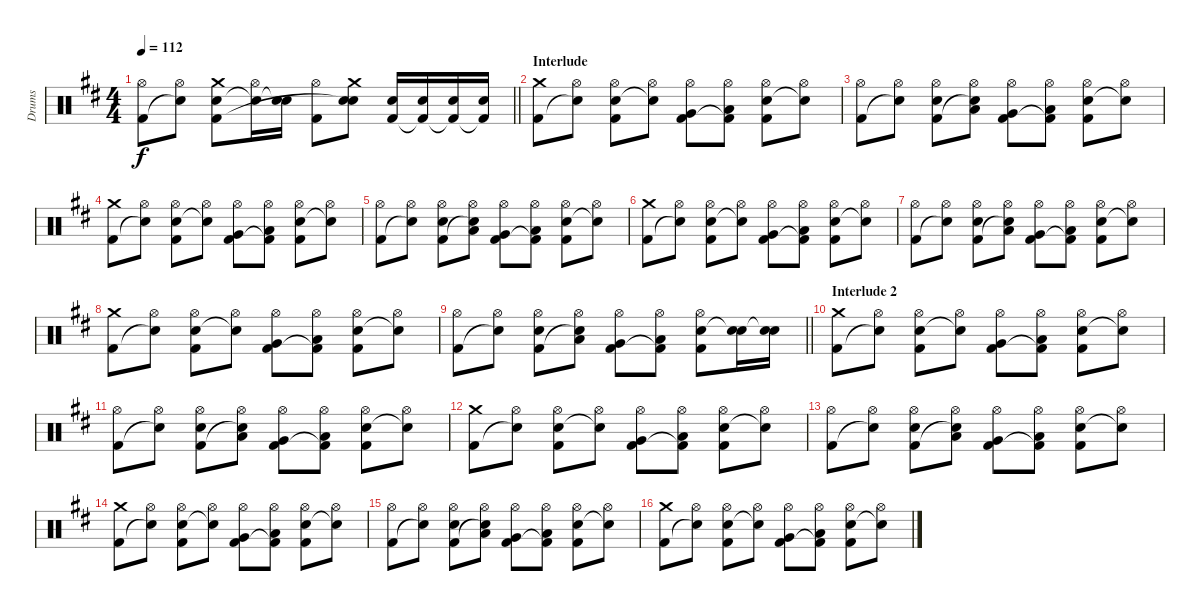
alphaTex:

\track ("Drums" "Drums") {instrument percussion}
\staff {score}
\articulation defaults
\ts (4 4)
\tempo 112
\clef neutral
\barLineRight lightlight
\ks bminor
("Hi-Hat (open)" "Kick (hit) 2").8{dy f} ("Hi-Hat (open)" "Snare (hit)"{t}).8 ("Crash medium (hit)" "Electric Snare (hit)" "Kick (hit) 2").8 ("Hi-Hat (open)" "Snare (hit)"{t}).16 ("Electric Snare (hit)" "Snare (hit)"{t}).16 ("Hi-Hat (open)" "Kick (hit) 2").8 ("Crash medium (hit)" "Electric Snare (hit)" "Snare (hit)"{t}).8 ("Electric Snare (hit)" "Kick (hit) 2").16 ("Electric Snare (hit)" "Kick (hit) 2"{t}).16 ("Electric Snare (hit)" "Kick (hit) 2"{t}).16 ("Electric Snare (hit)" "Kick (hit) 2"{t}).16 |
\section ("" "Interlude")
("Crash medium (hit)" "Kick (hit) 2").8 ("Hi-Hat (open)" "Snare (hit)"{t}).8 ("Hi-Hat (open)" "Electric Snare (hit)" "Kick (hit) 2").8 ("Hi-Hat (open)" "Snare (hit)"{t}).8 ("Hi-Hat (open)" "Very Low Tom (hit)" "Kick (hit) 2").8 ("Hi-Hat (open)" "Low Floor Tom (hit)" "Kick (hit) 2"{t}).8 ("Hi-Hat (open)" "Electric Snare (hit)" "Kick (hit) 2").8 ("Hi-Hat (open)" "Snare (hit)"{t}).8 |
("Hi-Hat (open)" "Kick (hit) 2").8 ("Hi-Hat (open)" "Snare (hit)"{t}).8 ("Hi-Hat (open)" "Electric Snare (hit)" "Kick (hit) 2").8 ("Hi-Hat (open)" "Low Tom (hit)" "Snare (hit)"{t}).8 ("Hi-Hat (open)" "Very Low Tom (hit)" "Kick (hit) 2").8 ("Hi-Hat (open)" "Low Floor Tom (hit)" "Kick (hit) 2"{t}).8 ("Hi-Hat (open)" "Electric Snare (hit)" "Kick (hit) 2").8 ("Hi-Hat (open)" "Snare (hit)"{t}).8 |
("Crash medium (hit)" "Kick (hit) 2").8 ("Hi-Hat (open)" "Snare (hit)"{t}).8 ("Hi-Hat (open)" "Electric Snare (hit)" "Kick (hit) 2").8 ("Hi-Hat (open)" "Snare (hit)"{t}).8 ("Hi-Hat (open)" "Very Low Tom (hit)" "Kick (hit) 2").8 ("Hi-Hat (open)" "Low Floor Tom (hit)" "Kick (hit) 2"{t}).8 ("Hi-Hat (open)" "Electric Snare (hit)" "Kick (hit) 2").8 ("Hi-Hat (open)" "Snare (hit)"{t}).8 |
("Hi-Hat (open)" "Kick (hit) 2").8 ("Hi-Hat (open)" "Snare (hit)"{t}).8 ("Hi-Hat (open)" "Electric Snare (hit)" "Kick (hit) 2").8 ("Hi-Hat (open)" "Low Tom (hit)" "Snare (hit)"{t}).8 ("Hi-Hat (open)" "Very Low Tom (hit)" "Kick (hit) 2").8 ("Hi-Hat (open)" "Low Floor Tom (hit)" "Kick (hit) 2"{t}).8 ("Hi-Hat (open)" "Electric Snare (hit)" "Kick (hit) 2").8 ("Hi-Hat (open)" "Snare (hit)"{t}).8 |
("Crash medium (hit)" "Kick (hit) 2").8 ("Hi-Hat (open)" "Snare (hit)"{t}).8 ("Hi-Hat (open)" "Electric Snare (hit)" "Kick (hit) 2").8 ("Hi-Hat (open)" "Snare (hit)"{t}).8 ("Hi-Hat (open)" "Very Low Tom (hit)" "Kick (hit) 2").8 ("Hi-Hat (open)" "Low Floor Tom (hit)" "Kick (hit) 2"{t}).8 ("Hi-Hat (open)" "Electric Snare (hit)" "Kick (hit) 2").8 ("Hi-Hat (open)" "Snare (hit)"{t}).8 |
("Hi-Hat (open)" "Kick (hit) 2").8 ("Hi-Hat (open)" "Snare (hit)"{t}).8 ("Hi-Hat (open)" "Electric Snare (hit)" "Kick (hit) 2").8 ("Hi-Hat (open)" "Low Tom (hit)" "Snare (hit)"{t}).8 ("Hi-Hat (open)" "Very Low Tom (hit)" "Kick (hit) 2").8 ("Hi-Hat (open)" "Low Floor Tom (hit)" "Kick (hit) 2"{t}).8 ("Hi-Hat (open)" "Electric Snare (hit)" "Kick (hit) 2").8 ("Hi-Hat (open)" "Snare (hit)"{t}).8 |
("Crash medium (hit)" "Kick (hit) 2").8 ("Hi-Hat (open)" "Snare (hit)"{t}).8 ("Hi-Hat (open)" "Electric Snare (hit)" "Kick (hit) 2").8 ("Hi-Hat (open)" "Snare (hit)"{t}).8 ("Hi-Hat (open)" "Very Low Tom (hit)" "Kick (hit) 2").8 ("Hi-Hat (open)" "Low Floor Tom (hit)" "Kick (hit) 2"{t}).8 ("Hi-Hat (open)" "Electric Snare (hit)" "Kick (hit) 2").8 ("Hi-Hat (open)" "Snare (hit)"{t}).8 |
\barLineRight lightlight
("Hi-Hat (open)" "Kick (hit) 2").8 ("Hi-Hat (open)" "Snare (hit)"{t}).8 ("Hi-Hat (open)" "Electric Snare (hit)" "Kick (hit) 2").8 ("Hi-Hat (open)" "Low Tom (hit)" "Snare (hit)"{t}).8 ("Hi-Hat (open)" "Very Low Tom (hit)" "Kick (hit) 2").8 ("Hi-Hat (open)" "Low Floor Tom (hit)" "Kick (hit) 2"{t}).8 ("Hi-Hat (open)" "Electric Snare (hit)" "Kick (hit) 2").8 ("Electric Snare (hit)" "Snare (hit)"{t}).16 ("Electric Snare (hit)" "Snare (hit)"{t}).16 |
\section ("" "Interlude 2")
("Crash medium (hit)" "Kick (hit) 2").8 ("Hi-Hat (open)" "Snare (hit)"{t}).8 ("Hi-Hat (open)" "Electric Snare (hit)" "Kick (hit) 2").8 ("Hi-Hat (open)" "Snare (hit)"{t}).8 ("Hi-Hat (open)" "Very Low Tom (hit)" "Kick (hit) 2").8 ("Hi-Hat (open)" "Low Floor Tom (hit)" "Kick (hit) 2"{t}).8 ("Hi-Hat (open)" "Electric Snare (hit)" "Kick (hit) 2").8 ("Hi-Hat (open)" "Snare (hit)"{t}).8 |
("Hi-Hat (open)" "Kick (hit) 2").8 ("Hi-Hat (open)" "Snare (hit)"{t}).8 ("Hi-Hat (open)" "Electric Snare (hit)" "Kick (hit) 2").8 ("Hi-Hat (open)" "Low Tom (hit)" "Snare (hit)"{t}).8 ("Hi-Hat (open)" "Very Low Tom (hit)" "Kick (hit) 2").8 ("Hi-Hat (open)" "Low Floor Tom (hit)" "Kick (hit) 2"{t}).8 ("Hi-Hat (open)" "Electric Snare (hit)" "Kick (hit) 2").8 ("Hi-Hat (open)" "Snare (hit)"{t}).8 |
("Crash medium (hit)" "Kick (hit) 2").8 ("Hi-Hat (open)" "Snare (hit)"{t}).8 ("Hi-Hat (open)" "Electric Snare (hit)" "Kick (hit) 2").8 ("Hi-Hat (open)" "Snare (hit)"{t}).8 ("Hi-Hat (open)" "Very Low Tom (hit)" "Kick (hit) 2").8 ("Hi-Hat (open)" "Low Floor Tom (hit)" "Kick (hit) 2"{t}).8 ("Hi-Hat (open)" "Electric Snare (hit)" "Kick (hit) 2").8 ("Hi-Hat (open)" "Snare (hit)"{t}).8 |
("Hi-Hat (open)" "Kick (hit) 2").8 ("Hi-Hat (open)" "Snare (hit)"{t}).8 ("Hi-Hat (open)" "Electric Snare (hit)" "Kick (hit) 2").8 ("Hi-Hat (open)" "Low Tom (hit)" "Snare (hit)"{t}).8 ("Hi-Hat (open)" "Very Low Tom (hit)" "Kick (hit) 2").8 ("Hi-Hat (open)" "Low Floor Tom (hit)" "Kick (hit) 2"{t}).8 ("Hi-Hat (open)" "Electric Snare (hit)" "Kick (hit) 2").8 ("Hi-Hat (open)" "Snare (hit)"{t}).8 |
("Crash medium (hit)" "Kick (hit) 2").8 ("Hi-Hat (open)" "Snare (hit)"{t}).8 ("Hi-Hat (open)" "Electric Snare (hit)" "Kick (hit) 2").8 ("Hi-Hat (open)" "Snare (hit)"{t}).8 ("Hi-Hat (open)" "Very Low Tom (hit)" "Kick (hit) 2").8 ("Hi-Hat (open)" "Low Floor Tom (hit)" "Kick (hit) 2"{t}).8 ("Hi-Hat (open)" "Electric Snare (hit)" "Kick (hit) 2").8 ("Hi-Hat (open)" "Snare (hit)"{t}).8 |
("Hi-Hat (open)" "Kick (hit) 2").8 ("Hi-Hat (open)" "Snare (hit)"{t}).8 ("Hi-Hat (open)" "Electric Snare (hit)" "Kick (hit) 2").8 ("Hi-Hat (open)" "Low Tom (hit)" "Snare (hit)"{t}).8 ("Hi-Hat (open)" "Very Low Tom (hit)" "Kick (hit) 2").8 ("Hi-Hat (open)" "Low Floor Tom (hit)" "Kick (hit) 2"{t}).8 ("Hi-Hat (open)" "Electric Snare (hit)" "Kick (hit) 2").8 ("Hi-Hat (open)" "Snare (hit)"{t}).8 |
("Crash medium (hit)" "Kick (hit) 2").8 ("Hi-Hat (open)" "Snare (hit)"{t}).8 ("Hi-Hat (open)" "Electric Snare (hit)" "Kick (hit) 2").8 ("Hi-Hat (open)" "Snare (hit)"{t}).8 ("Hi-Hat (open)" "Very Low Tom (hit)" "Kick (hit) 2").8 ("Hi-Hat (open)" "Low Floor Tom (hit)" "Kick (hit) 2"{t}).8 ("Hi-Hat (open)" "Electric Snare (hit)" "Kick (hit) 2").8 ("Hi-Hat (open)" "Snare (hit)"{t}).8
